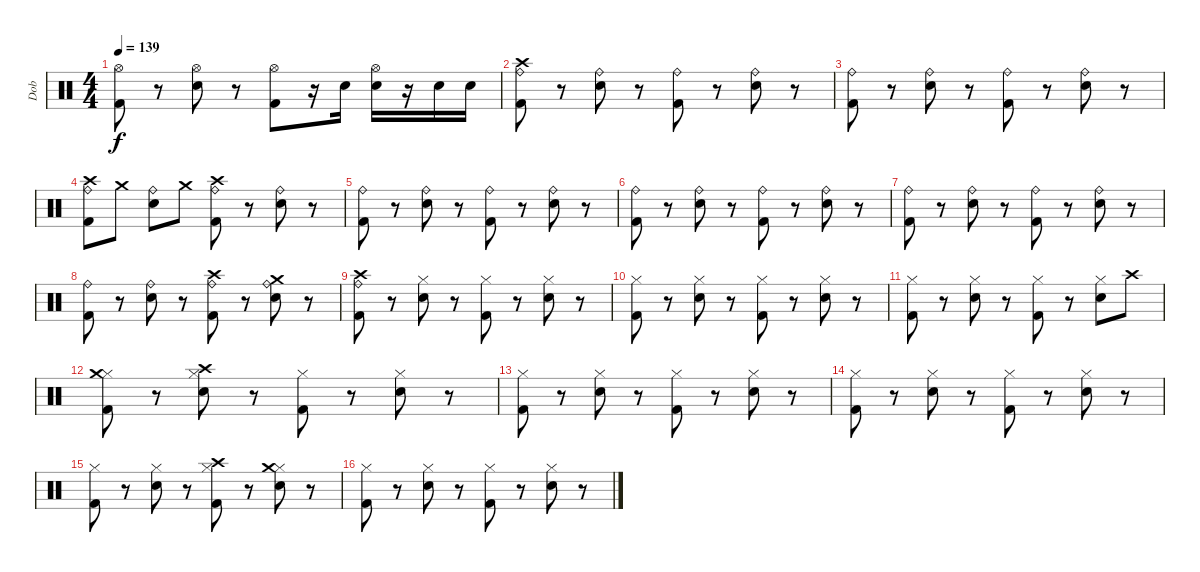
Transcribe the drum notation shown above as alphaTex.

\track ("Dob" "Dob") {instrument percussion}
\staff {score}
\articulation defaults
\ts (4 4)
\tempo 139
\clef neutral
\ks c
("Hi-Hat (open)" "Kick (hit) 2").8{dy f} r.8 ("Hi-Hat (open)" "Electric Snare (hit)").8 r.8 ("Hi-Hat (open)" "Kick (hit) 2").8 r.16 "Electric Snare (hit)".16 ("Hi-Hat (open)" "Electric Snare (hit)").16 r.16 "Electric Snare (hit)".16 "Electric Snare (hit)".16 |
("Ride (bell)" "Crash high (hit)" "Kick (hit) 2").8 r.8 ("Ride (bell)" "Electric Snare (hit)").8 r.8 ("Ride (bell)" "Kick (hit) 2").8 r.8 ("Ride (bell)" "Electric Snare (hit)").8 r.8 |
("Ride (bell)" "Kick (hit) 2").8 r.8 ("Ride (bell)" "Electric Snare (hit)").8 r.8 ("Ride (bell)" "Kick (hit) 2").8 r.8 ("Ride (bell)" "Electric Snare (hit)").8 r.8 |
("Ride (bell)" "Crash high (hit)" "Kick (hit) 2").8 "Crash medium (hit)".8 ("Ride (bell)" "Electric Snare (hit)").8 "Crash medium (hit)".8 ("Ride (bell)" "Crash high (hit)" "Kick (hit) 2").8 r.8 ("Ride (bell)" "Electric Snare (hit)").8 r.8 |
("Ride (bell)" "Kick (hit) 2").8 r.8 ("Ride (bell)" "Electric Snare (hit)").8 r.8 ("Ride (bell)" "Kick (hit) 2").8 r.8 ("Ride (bell)" "Electric Snare (hit)").8 r.8 |
("Ride (bell)" "Kick (hit) 2").8 r.8 ("Ride (bell)" "Electric Snare (hit)").8 r.8 ("Ride (bell)" "Kick (hit) 2").8 r.8 ("Ride (bell)" "Electric Snare (hit)").8 r.8 |
("Ride (bell)" "Kick (hit) 2").8 r.8 ("Ride (bell)" "Electric Snare (hit)").8 r.8 ("Ride (bell)" "Kick (hit) 2").8 r.8 ("Ride (bell)" "Electric Snare (hit)").8 r.8 |
("Ride (bell)" "Kick (hit) 2").8 r.8 ("Ride (bell)" "Electric Snare (hit)").8 r.8 ("Ride (bell)" "Crash high (hit)" "Kick (hit) 2").8 r.8 ("Ride (bell)" "Crash medium (hit)" "Electric Snare (hit)").8 r.8 |
("Ride (bell)" "Crash high (hit)" "Kick (hit) 2").8 r.8 ("Hi-Hat (closed)" "Electric Snare (hit)").8 r.8 ("Hi-Hat (closed)" "Kick (hit) 2").8 r.8 ("Hi-Hat (closed)" "Electric Snare (hit)").8 r.8 |
("Hi-Hat (closed)" "Kick (hit) 2").8 r.8 ("Hi-Hat (closed)" "Electric Snare (hit)").8 r.8 ("Hi-Hat (closed)" "Kick (hit) 2").8 r.8 ("Hi-Hat (closed)" "Electric Snare (hit)").8 r.8 |
("Hi-Hat (closed)" "Kick (hit) 2").8 r.8 ("Hi-Hat (closed)" "Electric Snare (hit)").8 r.8 ("Hi-Hat (closed)" "Kick (hit) 2").8 r.8 ("Hi-Hat (closed)" "Electric Snare (hit)").8 "Crash high (hit)".8 |
("Hi-Hat (closed)" "Crash medium (hit)" "Kick (hit) 2").8 r.8 ("Hi-Hat (closed)" "Crash high (hit)" "Electric Snare (hit)").8 r.8 ("Hi-Hat (closed)" "Kick (hit) 2").8 r.8 ("Hi-Hat (closed)" "Electric Snare (hit)").8 r.8 |
("Hi-Hat (closed)" "Kick (hit) 2").8 r.8 ("Hi-Hat (closed)" "Electric Snare (hit)").8 r.8 ("Hi-Hat (closed)" "Kick (hit) 2").8 r.8 ("Hi-Hat (closed)" "Electric Snare (hit)").8 r.8 |
("Hi-Hat (closed)" "Kick (hit) 2").8 r.8 ("Hi-Hat (closed)" "Electric Snare (hit)").8 r.8 ("Hi-Hat (closed)" "Kick (hit) 2").8 r.8 ("Hi-Hat (closed)" "Electric Snare (hit)").8 r.8 |
("Hi-Hat (closed)" "Kick (hit) 2").8 r.8 ("Hi-Hat (closed)" "Electric Snare (hit)").8 r.8 ("Hi-Hat (closed)" "Crash high (hit)" "Kick (hit) 2").8 r.8 ("Hi-Hat (closed)" "Crash medium (hit)" "Electric Snare (hit)").8 r.8 |
("Hi-Hat (closed)" "Kick (hit) 2").8 r.8 ("Hi-Hat (closed)" "Electric Snare (hit)").8 r.8 ("Hi-Hat (closed)" "Kick (hit) 2").8 r.8 ("Hi-Hat (closed)" "Electric Snare (hit)").8 r.8
